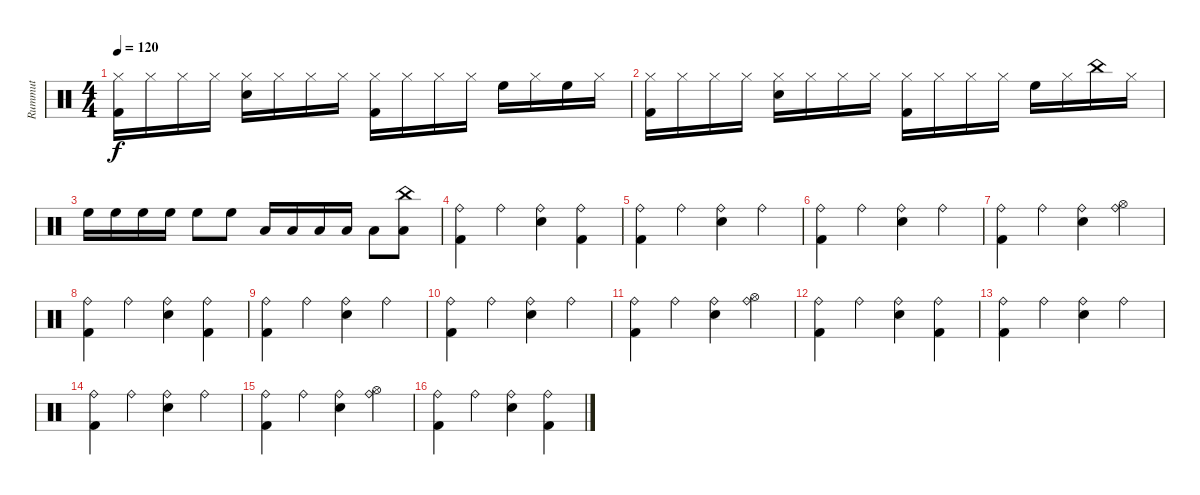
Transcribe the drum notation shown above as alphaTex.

\track ("Rummut" "Rummut") {instrument percussion}
\staff {score}
\articulation defaults
\ts (4 4)
\tempo 120
\clef neutral
\ks c
("Hi-Hat (closed)" "Kick (hit) 2").16{dy f} "Hi-Hat (closed)".16 "Hi-Hat (closed)".16 "Hi-Hat (closed)".16 ("Hi-Hat (closed)" "Snare (hit) 2").16 "Hi-Hat (closed)".16 "Hi-Hat (closed)".16 "Hi-Hat (closed)".16 ("Hi-Hat (closed)" "Kick (hit) 2").16 "Hi-Hat (closed)".16 "Hi-Hat (closed)".16 "Hi-Hat (closed)".16 "High Floor Tom (hit)".16 "Hi-Hat (closed)".16 "High Floor Tom (hit)".16 "Hi-Hat (closed)".16 |
("Hi-Hat (closed)" "Kick (hit) 2").16 "Hi-Hat (closed)".16 "Hi-Hat (closed)".16 "Hi-Hat (closed)".16 ("Hi-Hat (closed)" "Snare (hit) 2").16 "Hi-Hat (closed)".16 "Hi-Hat (closed)".16 "Hi-Hat (closed)".16 ("Hi-Hat (closed)" "Kick (hit) 2").16 "Hi-Hat (closed)".16 "Hi-Hat (closed)".16 "Hi-Hat (closed)".16 "High Floor Tom (hit)".16 "Hi-Hat (closed)".16 "China (hit)".16 "Hi-Hat (closed)".16 |
"High Floor Tom (hit)".16 "High Floor Tom (hit)".16 "High Floor Tom (hit)".16 "High Floor Tom (hit)".16 "High Floor Tom (hit)".8 "High Floor Tom (hit)".8 "Low Tom (hit)".16 "Low Tom (hit)".16 "Low Tom (hit)".16 "Low Tom (hit)".16 "Low Tom (hit)".8 ("Low Tom (hit)" "China (hit)").8 |
("Ride (bell)" "Kick (hit) 2").4 "Ride (bell)".4 ("Ride (bell)" "Snare (hit) 2").4 ("Ride (bell)" "Kick (hit) 2").4 |
("Ride (bell)" "Kick (hit) 2").4 "Ride (bell)".4 ("Ride (bell)" "Snare (hit) 2").4 "Ride (bell)".4 |
("Ride (bell)" "Kick (hit) 2").4 "Ride (bell)".4 ("Ride (bell)" "Snare (hit) 2").4 "Ride (bell)".4 |
("Ride (bell)" "Kick (hit) 2").4 "Ride (bell)".4 ("Ride (bell)" "Snare (hit) 2").4 ("Ride (bell)" "Hi-Hat (open)").4 |
("Ride (bell)" "Kick (hit) 2").4 "Ride (bell)".4 ("Ride (bell)" "Snare (hit) 2").4 ("Ride (bell)" "Kick (hit) 2").4 |
("Ride (bell)" "Kick (hit) 2").4 "Ride (bell)".4 ("Ride (bell)" "Snare (hit) 2").4 "Ride (bell)".4 |
("Ride (bell)" "Kick (hit) 2").4 "Ride (bell)".4 ("Ride (bell)" "Snare (hit) 2").4 "Ride (bell)".4 |
("Ride (bell)" "Kick (hit) 2").4 "Ride (bell)".4 ("Ride (bell)" "Snare (hit) 2").4 ("Ride (bell)" "Hi-Hat (open)").4 |
("Ride (bell)" "Kick (hit) 2").4 "Ride (bell)".4 ("Ride (bell)" "Snare (hit) 2").4 ("Ride (bell)" "Kick (hit) 2").4 |
("Ride (bell)" "Kick (hit) 2").4 "Ride (bell)".4 ("Ride (bell)" "Snare (hit) 2").4 "Ride (bell)".4 |
("Ride (bell)" "Kick (hit) 2").4 "Ride (bell)".4 ("Ride (bell)" "Snare (hit) 2").4 "Ride (bell)".4 |
("Ride (bell)" "Kick (hit) 2").4 "Ride (bell)".4 ("Ride (bell)" "Snare (hit) 2").4 ("Ride (bell)" "Hi-Hat (open)").4 |
("Ride (bell)" "Kick (hit) 2").4 "Ride (bell)".4 ("Ride (bell)" "Snare (hit) 2").4 ("Ride (bell)" "Kick (hit) 2").4
